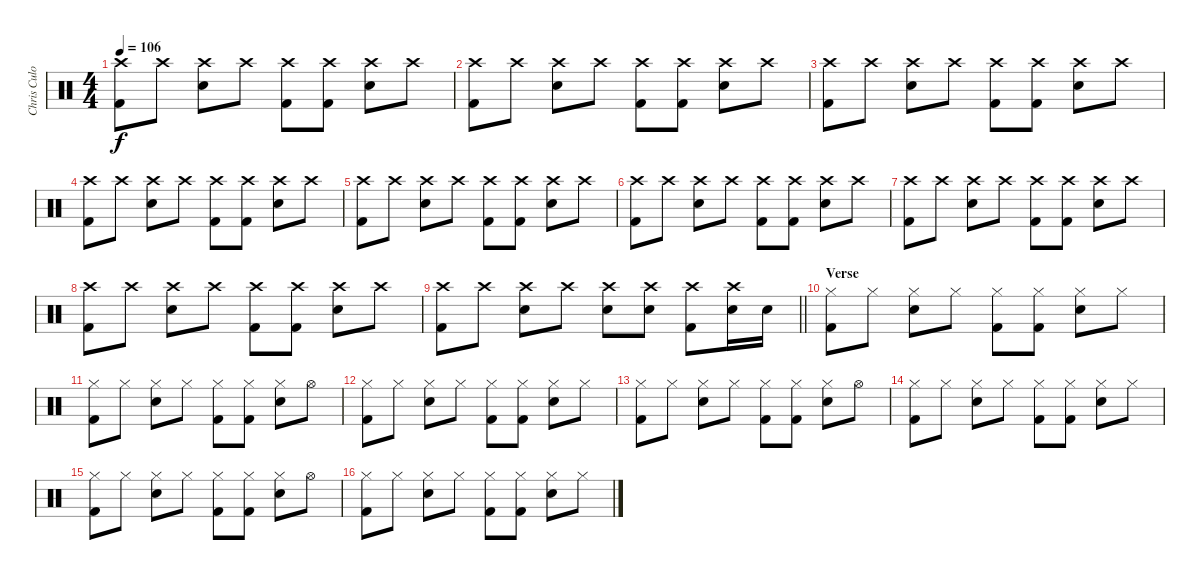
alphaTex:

\track ("Chris Culos" "Chris Culo") {instrument percussion}
\staff {score}
\articulation defaults
\ts (4 4)
\tempo 106
\clef neutral
\ks c
("Crash high (hit)" "Kick (hit) 2").8{dy f} "Crash high (hit)".8 ("Crash high (hit)" "Snare (hit) 2").8 "Crash high (hit)".8 ("Crash high (hit)" "Kick (hit) 2").8 ("Crash high (hit)" "Kick (hit) 2").8 ("Crash high (hit)" "Snare (hit) 2").8 "Crash high (hit)".8 |
("Crash high (hit)" "Kick (hit) 2").8 "Crash high (hit)".8 ("Crash high (hit)" "Snare (hit) 2").8 "Crash high (hit)".8 ("Crash high (hit)" "Kick (hit) 2").8 ("Crash high (hit)" "Kick (hit) 2").8 ("Crash high (hit)" "Snare (hit) 2").8 "Crash high (hit)".8 |
("Crash high (hit)" "Kick (hit) 2").8 "Crash high (hit)".8 ("Crash high (hit)" "Snare (hit) 2").8 "Crash high (hit)".8 ("Crash high (hit)" "Kick (hit) 2").8 ("Crash high (hit)" "Kick (hit) 2").8 ("Crash high (hit)" "Snare (hit) 2").8 "Crash high (hit)".8 |
("Crash high (hit)" "Kick (hit) 2").8 "Crash high (hit)".8 ("Crash high (hit)" "Snare (hit) 2").8 "Crash high (hit)".8 ("Crash high (hit)" "Kick (hit) 2").8 ("Crash high (hit)" "Kick (hit) 2").8 ("Crash high (hit)" "Snare (hit) 2").8 "Crash high (hit)".8 |
("Crash high (hit)" "Kick (hit) 2").8 "Crash high (hit)".8 ("Crash high (hit)" "Snare (hit) 2").8 "Crash high (hit)".8 ("Crash high (hit)" "Kick (hit) 2").8 ("Crash high (hit)" "Kick (hit) 2").8 ("Crash high (hit)" "Snare (hit) 2").8 "Crash high (hit)".8 |
("Crash high (hit)" "Kick (hit) 2").8 "Crash high (hit)".8 ("Crash high (hit)" "Snare (hit) 2").8 "Crash high (hit)".8 ("Crash high (hit)" "Kick (hit) 2").8 ("Crash high (hit)" "Kick (hit) 2").8 ("Crash high (hit)" "Snare (hit) 2").8 "Crash high (hit)".8 |
("Crash high (hit)" "Kick (hit) 2").8 "Crash high (hit)".8 ("Crash high (hit)" "Snare (hit) 2").8 "Crash high (hit)".8 ("Crash high (hit)" "Kick (hit) 2").8 ("Crash high (hit)" "Kick (hit) 2").8 ("Crash high (hit)" "Snare (hit) 2").8 "Crash high (hit)".8 |
("Crash high (hit)" "Kick (hit) 2").8 "Crash high (hit)".8 ("Crash high (hit)" "Snare (hit) 2").8 "Crash high (hit)".8 ("Crash high (hit)" "Kick (hit) 2").8 ("Crash high (hit)" "Kick (hit) 2").8 ("Crash high (hit)" "Snare (hit) 2").8 "Crash high (hit)".8 |
\barLineRight lightlight
("Crash high (hit)" "Kick (hit) 2").8 "Crash high (hit)".8 ("Crash high (hit)" "Snare (hit) 2").8 "Crash high (hit)".8 ("Crash high (hit)" "Snare (hit) 2").8 ("Crash high (hit)" "Snare (hit) 2").8 ("Crash high (hit)" "Kick (hit) 2").8 ("Crash high (hit)" "Snare (hit) 2").16 "Snare (hit) 2".16 |
\section ("" "Verse")
("Hi-Hat (closed)" "Kick (hit) 2").8 "Hi-Hat (closed)".8 ("Hi-Hat (closed)" "Snare (hit) 2").8 "Hi-Hat (closed)".8 ("Hi-Hat (closed)" "Kick (hit) 2").8 ("Hi-Hat (closed)" "Kick (hit) 2").8 ("Hi-Hat (closed)" "Snare (hit) 2").8 "Hi-Hat (closed)".8 |
("Hi-Hat (closed)" "Kick (hit) 2").8 "Hi-Hat (closed)".8 ("Hi-Hat (closed)" "Snare (hit) 2").8 "Hi-Hat (closed)".8 ("Hi-Hat (closed)" "Kick (hit) 2").8 ("Hi-Hat (closed)" "Kick (hit) 2").8 ("Hi-Hat (closed)" "Snare (hit) 2").8 "Hi-Hat (open)".8 |
("Hi-Hat (closed)" "Kick (hit) 2").8 "Hi-Hat (closed)".8 ("Hi-Hat (closed)" "Snare (hit) 2").8 "Hi-Hat (closed)".8 ("Hi-Hat (closed)" "Kick (hit) 2").8 ("Hi-Hat (closed)" "Kick (hit) 2").8 ("Hi-Hat (closed)" "Snare (hit) 2").8 "Hi-Hat (closed)".8 |
("Hi-Hat (closed)" "Kick (hit) 2").8 "Hi-Hat (closed)".8 ("Hi-Hat (closed)" "Snare (hit) 2").8 "Hi-Hat (closed)".8 ("Hi-Hat (closed)" "Kick (hit) 2").8 ("Hi-Hat (closed)" "Kick (hit) 2").8 ("Hi-Hat (closed)" "Snare (hit) 2").8 "Hi-Hat (open)".8 |
("Hi-Hat (closed)" "Kick (hit) 2").8 "Hi-Hat (closed)".8 ("Hi-Hat (closed)" "Snare (hit) 2").8 "Hi-Hat (closed)".8 ("Hi-Hat (closed)" "Kick (hit) 2").8 ("Hi-Hat (closed)" "Kick (hit) 2").8 ("Hi-Hat (closed)" "Snare (hit) 2").8 "Hi-Hat (closed)".8 |
("Hi-Hat (closed)" "Kick (hit) 2").8 "Hi-Hat (closed)".8 ("Hi-Hat (closed)" "Snare (hit) 2").8 "Hi-Hat (closed)".8 ("Hi-Hat (closed)" "Kick (hit) 2").8 ("Hi-Hat (closed)" "Kick (hit) 2").8 ("Hi-Hat (closed)" "Snare (hit) 2").8 "Hi-Hat (open)".8 |
("Hi-Hat (closed)" "Kick (hit) 2").8 "Hi-Hat (closed)".8 ("Hi-Hat (closed)" "Snare (hit) 2").8 "Hi-Hat (closed)".8 ("Hi-Hat (closed)" "Kick (hit) 2").8 ("Hi-Hat (closed)" "Kick (hit) 2").8 ("Hi-Hat (closed)" "Snare (hit) 2").8 "Hi-Hat (closed)".8
